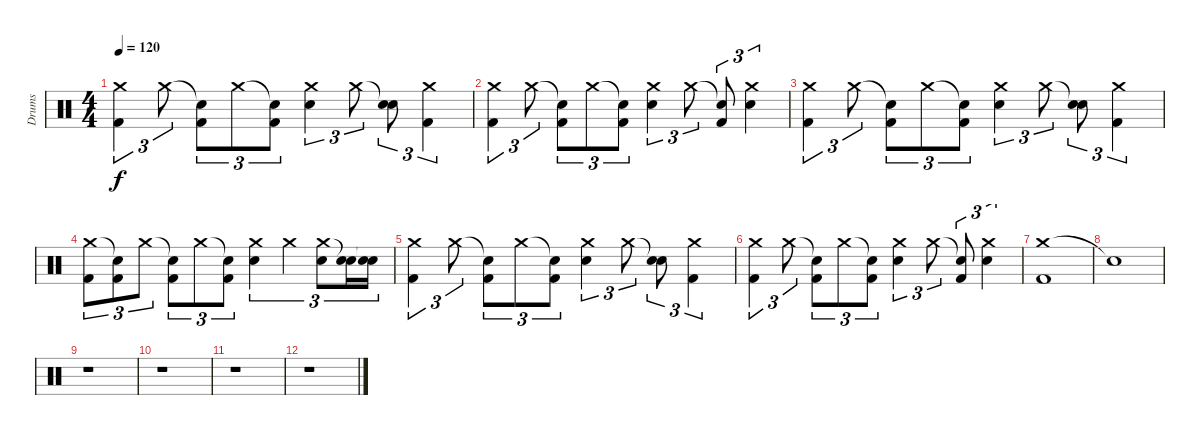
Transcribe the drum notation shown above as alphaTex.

\track ("Drums" "Drums") {instrument percussion}
\staff {score}
\articulation defaults
\ts (4 4)
\tempo 120
\clef neutral
\ks c
("Crash medium (hit)" "Kick (hit) 2").4{tu (3 2) dy f} "Crash medium (hit)".8{tu (3 2)} ("Snare (hit)"{t} "Kick (hit) 2").8{tu (3 2)} "Crash medium (hit)".8{tu (3 2)} ("Snare (hit)"{t} "Kick (hit) 2").8{tu (3 2)} ("Crash medium (hit)" "Electric Snare (hit)").4{tu (3 2)} "Crash medium (hit)".8{tu (3 2)} ("Snare (hit)"{t} "Electric Snare (hit)").8{tu (3 2)} ("Crash medium (hit)" "Kick (hit) 2").4{tu (3 2)} |
("Crash medium (hit)" "Kick (hit) 2").4{tu (3 2)} "Crash medium (hit)".8{tu (3 2)} ("Snare (hit)"{t} "Kick (hit) 2").8{tu (3 2)} "Crash medium (hit)".8{tu (3 2)} ("Snare (hit)"{t} "Kick (hit) 2").8{tu (3 2)} ("Crash medium (hit)" "Electric Snare (hit)").4{tu (3 2)} "Crash medium (hit)".8{tu (3 2)} ("Snare (hit)"{t} "Kick (hit) 2").8{tu (3 2)} ("Crash medium (hit)" "Electric Snare (hit)").4{tu (3 2)} |
("Crash medium (hit)" "Kick (hit) 2").4{tu (3 2)} "Crash medium (hit)".8{tu (3 2)} ("Snare (hit)"{t} "Kick (hit) 2").8{tu (3 2)} "Crash medium (hit)".8{tu (3 2)} ("Snare (hit)"{t} "Kick (hit) 2").8{tu (3 2)} ("Crash medium (hit)" "Electric Snare (hit)").4{tu (3 2)} "Crash medium (hit)".8{tu (3 2)} ("Snare (hit)"{t} "Electric Snare (hit)").8{tu (3 2)} ("Crash medium (hit)" "Kick (hit) 2").4{tu (3 2)} |
("Crash medium (hit)" "Kick (hit) 2").8{tu (3 2)} ("Snare (hit)"{t} "Kick (hit) 2").8{tu (3 2)} "Crash medium (hit)".8{tu (3 2)} ("Snare (hit)"{t} "Kick (hit) 2").8{tu (3 2)} "Crash medium (hit)".8{tu (3 2)} ("Snare (hit)"{t} "Kick (hit) 2").8{tu (3 2)} ("Crash medium (hit)" "Electric Snare (hit)").4{tu (3 2)} "Crash medium (hit)".4{tu (3 2)} ("Crash medium (hit)" "Electric Snare (hit)").8{tu (3 2)} ("Snare (hit)"{t} "Electric Snare (hit)").16{tu (3 2)} ("Snare (hit)"{t} "Electric Snare (hit)").16{tu (3 2)} |
("Crash medium (hit)" "Kick (hit) 2").4{tu (3 2)} "Crash medium (hit)".8{tu (3 2)} ("Snare (hit)"{t} "Kick (hit) 2").8{tu (3 2)} "Crash medium (hit)".8{tu (3 2)} ("Snare (hit)"{t} "Kick (hit) 2").8{tu (3 2)} ("Crash medium (hit)" "Electric Snare (hit)").4{tu (3 2)} "Crash medium (hit)".8{tu (3 2)} ("Snare (hit)"{t} "Electric Snare (hit)").8{tu (3 2)} ("Crash medium (hit)" "Kick (hit) 2").4{tu (3 2)} |
("Crash medium (hit)" "Kick (hit) 2").4{tu (3 2)} "Crash medium (hit)".8{tu (3 2)} ("Snare (hit)"{t} "Kick (hit) 2").8{tu (3 2)} "Crash medium (hit)".8{tu (3 2)} ("Snare (hit)"{t} "Kick (hit) 2").8{tu (3 2)} ("Crash medium (hit)" "Electric Snare (hit)").4{tu (3 2)} "Crash medium (hit)".8{tu (3 2)} ("Snare (hit)"{t} "Kick (hit) 2").8{tu (3 2)} ("Crash medium (hit)" "Electric Snare (hit)").4{tu (3 2)} |
("Crash medium (hit)" "Kick (hit) 2").1 |
"Snare (hit)"{t}.1 |
r.1 |
r.1 |
r.1 |
r.1
